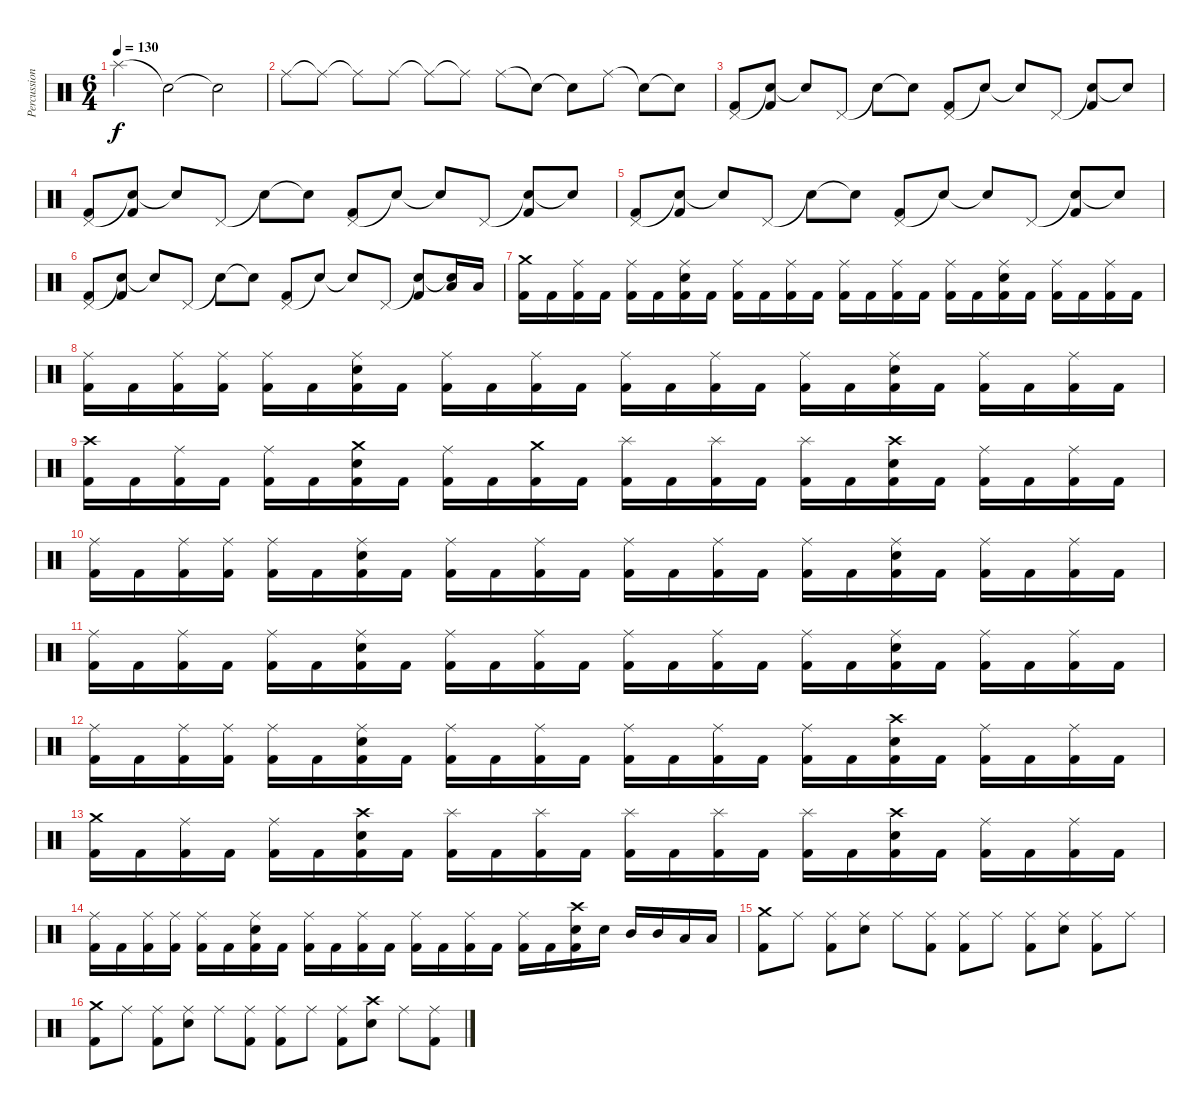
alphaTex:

\track ("Percussion" "Percussion") {instrument percussion}
\staff {score}
\articulation defaults
\ts (6 4)
\tempo 130
\clef neutral
\ks c "Splash (hit)".2{dy f} "Snare (hit)"{t}.2 "Snare (hit)"{t}.2
|
"Ride (middle)".8 "Ride (middle)"{t}.8 "Ride (middle)"{t}.8 "Ride (middle)".8 "Ride (middle)"{t}.8 "Ride (middle)"{t}.8 "Ride (middle)".8 "Snare (hit)"{t}.8 "Snare (hit)"{t}.8 "Ride (middle)".8 "Snare (hit)"{t}.8 "Snare (hit)"{t}.8 |
("Pedal Hi-Hat (hit)" "Kick (hit) 2").8 ("Snare (hit)"{t} "Kick (hit) 2").8 "Snare (hit)"{t}.8 "Pedal Hi-Hat (hit)".8 "Snare (hit)"{t}.8 "Snare (hit)"{t}.8 ("Pedal Hi-Hat (hit)" "Kick (hit) 2").8 "Snare (hit)"{t}.8 "Snare (hit)"{t}.8 "Pedal Hi-Hat (hit)".8 ("Snare (hit)"{t} "Kick (hit) 2").8 "Snare (hit)"{t}.8 |
("Pedal Hi-Hat (hit)" "Kick (hit) 2").8 ("Snare (hit)"{t} "Kick (hit) 2").8 "Snare (hit)"{t}.8 "Pedal Hi-Hat (hit)".8 "Snare (hit)"{t}.8 "Snare (hit)"{t}.8 ("Pedal Hi-Hat (hit)" "Kick (hit) 2").8 "Snare (hit)"{t}.8 "Snare (hit)"{t}.8 "Pedal Hi-Hat (hit)".8 ("Snare (hit)"{t} "Kick (hit) 2").8 "Snare (hit)"{t}.8 |
("Pedal Hi-Hat (hit)" "Kick (hit) 2").8 ("Snare (hit)"{t} "Kick (hit) 2").8 "Snare (hit)"{t}.8 "Pedal Hi-Hat (hit)".8 "Snare (hit)"{t}.8 "Snare (hit)"{t}.8 ("Pedal Hi-Hat (hit)" "Kick (hit) 2").8 "Snare (hit)"{t}.8 "Snare (hit)"{t}.8 "Pedal Hi-Hat (hit)".8 ("Snare (hit)"{t} "Kick (hit) 2").8 "Snare (hit)"{t}.8 |
("Pedal Hi-Hat (hit)" "Kick (hit) 2").8 ("Snare (hit)"{t} "Kick (hit) 2").8 "Snare (hit)"{t}.8 "Pedal Hi-Hat (hit)".8 "Snare (hit)"{t}.8 "Snare (hit)"{t}.8 ("Pedal Hi-Hat (hit)" "Kick (hit) 2").8 "Snare (hit)"{t}.8 "Snare (hit)"{t}.8 "Pedal Hi-Hat (hit)".8 ("Snare (hit)"{t} "Kick (hit) 2").8 ("Snare (hit)"{t} "Low Tom (hit)").16 "Low Tom (hit)".16 |
("Crash medium (hit)" "Kick (hit) 2").16 "Kick (hit) 2".16 ("Ride (middle)" "Kick (hit) 2").16 "Kick (hit) 2".16 ("Ride (middle)" "Kick (hit) 2").16 "Kick (hit) 2".16 ("Ride (middle)" "Snare (hit) 2" "Kick (hit) 2").16 "Kick (hit) 2".16 ("Ride (middle)" "Kick (hit) 2").16 "Kick (hit) 2".16 ("Ride (middle)" "Kick (hit) 2").16 "Kick (hit) 2".16 ("Ride (middle)" "Kick (hit) 2").16 "Kick (hit) 2".16 ("Ride (middle)" "Kick (hit) 2").16 "Kick (hit) 2".16 ("Ride (middle)" "Kick (hit) 2").16 "Kick (hit) 2".16 ("Ride (middle)" "Snare (hit) 2" "Kick (hit) 2").16 "Kick (hit) 2".16 ("Ride (middle)" "Kick (hit) 2").16 "Kick (hit) 2".16 ("Ride (middle)" "Kick (hit) 2").16 "Kick (hit) 2".16 |
("Ride (middle)" "Kick (hit) 2").16 "Kick (hit) 2".16 ("Ride (middle)" "Kick (hit) 2").16 ("Ride (middle)" "Kick (hit) 2").16 ("Ride (middle)" "Kick (hit) 2").16 "Kick (hit) 2".16 ("Ride (middle)" "Snare (hit) 2" "Kick (hit) 2").16 "Kick (hit) 2".16 ("Ride (middle)" "Kick (hit) 2").16 "Kick (hit) 2".16 ("Ride (middle)" "Kick (hit) 2").16 "Kick (hit) 2".16 ("Ride (middle)" "Kick (hit) 2").16 "Kick (hit) 2".16 ("Ride (middle)" "Kick (hit) 2").16 "Kick (hit) 2".16 ("Ride (middle)" "Kick (hit) 2").16 "Kick (hit) 2".16 ("Ride (middle)" "Snare (hit) 2" "Kick (hit) 2").16 "Kick (hit) 2".16 ("Ride (middle)" "Kick (hit) 2").16 "Kick (hit) 2".16 ("Ride (middle)" "Kick (hit) 2").16 "Kick (hit) 2".16 |
("Crash high (hit)" "Kick (hit) 2").16 "Kick (hit) 2".16 ("Ride (middle)" "Kick (hit) 2").16 "Kick (hit) 2".16 ("Ride (middle)" "Kick (hit) 2").16 "Kick (hit) 2".16 ("Crash medium (hit)" "Snare (hit) 2" "Kick (hit) 2").16 "Kick (hit) 2".16 ("Ride (middle)" "Kick (hit) 2").16 "Kick (hit) 2".16 ("Crash medium (hit)" "Kick (hit) 2").16 "Kick (hit) 2".16 ("Splash (hit)" "Kick (hit) 2").16 "Kick (hit) 2".16 ("Splash (hit)" "Kick (hit) 2").16 "Kick (hit) 2".16 ("Splash (hit)" "Kick (hit) 2").16 "Kick (hit) 2".16 ("Crash high (hit)" "Snare (hit) 2" "Kick (hit) 2").16 "Kick (hit) 2".16 ("Ride (middle)" "Kick (hit) 2").16 "Kick (hit) 2".16 ("Ride (middle)" "Kick (hit) 2").16 "Kick (hit) 2".16 |
("Ride (middle)" "Kick (hit) 2").16 "Kick (hit) 2".16 ("Ride (middle)" "Kick (hit) 2").16 ("Ride (middle)" "Kick (hit) 2").16 ("Ride (middle)" "Kick (hit) 2").16 "Kick (hit) 2".16 ("Ride (middle)" "Snare (hit) 2" "Kick (hit) 2").16 "Kick (hit) 2".16 ("Ride (middle)" "Kick (hit) 2").16 "Kick (hit) 2".16 ("Ride (middle)" "Kick (hit) 2").16 "Kick (hit) 2".16 ("Ride (middle)" "Kick (hit) 2").16 "Kick (hit) 2".16 ("Ride (middle)" "Kick (hit) 2").16 "Kick (hit) 2".16 ("Ride (middle)" "Kick (hit) 2").16 "Kick (hit) 2".16 ("Ride (middle)" "Snare (hit) 2" "Kick (hit) 2").16 "Kick (hit) 2".16 ("Ride (middle)" "Kick (hit) 2").16 "Kick (hit) 2".16 ("Ride (middle)" "Kick (hit) 2").16 "Kick (hit) 2".16 |
("Ride (middle)" "Kick (hit) 2").16 "Kick (hit) 2".16 ("Ride (middle)" "Kick (hit) 2").16 "Kick (hit) 2".16 ("Ride (middle)" "Kick (hit) 2").16 "Kick (hit) 2".16 ("Ride (middle)" "Snare (hit) 2" "Kick (hit) 2").16 "Kick (hit) 2".16 ("Ride (middle)" "Kick (hit) 2").16 "Kick (hit) 2".16 ("Ride (middle)" "Kick (hit) 2").16 "Kick (hit) 2".16 ("Ride (middle)" "Kick (hit) 2").16 "Kick (hit) 2".16 ("Ride (middle)" "Kick (hit) 2").16 "Kick (hit) 2".16 ("Ride (middle)" "Kick (hit) 2").16 "Kick (hit) 2".16 ("Ride (middle)" "Snare (hit) 2" "Kick (hit) 2").16 "Kick (hit) 2".16 ("Ride (middle)" "Kick (hit) 2").16 "Kick (hit) 2".16 ("Ride (middle)" "Kick (hit) 2").16 "Kick (hit) 2".16 |
("Ride (middle)" "Kick (hit) 2").16 "Kick (hit) 2".16 ("Ride (middle)" "Kick (hit) 2").16 ("Ride (middle)" "Kick (hit) 2").16 ("Ride (middle)" "Kick (hit) 2").16 "Kick (hit) 2".16 ("Ride (middle)" "Snare (hit) 2" "Kick (hit) 2").16 "Kick (hit) 2".16 ("Ride (middle)" "Kick (hit) 2").16 "Kick (hit) 2".16 ("Ride (middle)" "Kick (hit) 2").16 "Kick (hit) 2".16 ("Ride (middle)" "Kick (hit) 2").16 "Kick (hit) 2".16 ("Ride (middle)" "Kick (hit) 2").16 "Kick (hit) 2".16 ("Ride (middle)" "Kick (hit) 2").16 "Kick (hit) 2".16 ("Crash high (hit)" "Snare (hit) 2" "Kick (hit) 2").16 "Kick (hit) 2".16 ("Ride (middle)" "Kick (hit) 2").16 "Kick (hit) 2".16 ("Ride (middle)" "Kick (hit) 2").16 "Kick (hit) 2".16 |
("Crash medium (hit)" "Kick (hit) 2").16 "Kick (hit) 2".16 ("Ride (middle)" "Kick (hit) 2").16 "Kick (hit) 2".16 ("Ride (middle)" "Kick (hit) 2").16 "Kick (hit) 2".16 ("Crash high (hit)" "Snare (hit) 2" "Kick (hit) 2").16 "Kick (hit) 2".16 ("Splash (hit)" "Kick (hit) 2").16 "Kick (hit) 2".16 ("Splash (hit)" "Kick (hit) 2").16 "Kick (hit) 2".16 ("Splash (hit)" "Kick (hit) 2").16 "Kick (hit) 2".16 ("Splash (hit)" "Kick (hit) 2").16 "Kick (hit) 2".16 ("Splash (hit)" "Kick (hit) 2").16 "Kick (hit) 2".16 ("Crash high (hit)" "Snare (hit) 2" "Kick (hit) 2").16 "Kick (hit) 2".16 ("Ride (middle)" "Kick (hit) 2").16 "Kick (hit) 2".16 ("Ride (middle)" "Kick (hit) 2").16 "Kick (hit) 2".16 |
("Ride (middle)" "Kick (hit) 2").16 "Kick (hit) 2".16 ("Ride (middle)" "Kick (hit) 2").16 ("Ride (middle)" "Kick (hit) 2").16 ("Ride (middle)" "Kick (hit) 2").16 "Kick (hit) 2".16 ("Ride (middle)" "Snare (hit) 2" "Kick (hit) 2").16 "Kick (hit) 2".16 ("Ride (middle)" "Kick (hit) 2").16 "Kick (hit) 2".16 ("Ride (middle)" "Kick (hit) 2").16 "Kick (hit) 2".16 ("Ride (middle)" "Kick (hit) 2").16 "Kick (hit) 2".16 ("Ride (middle)" "Kick (hit) 2").16 "Kick (hit) 2".16 ("Ride (middle)" "Kick (hit) 2").16 "Kick (hit) 2".16 ("Crash high (hit)" "Snare (hit) 2" "Kick (hit) 2").16 "Snare (hit) 2".16 "Mid Tom (hit)".16 "Mid Tom (hit)".16 "Low Tom (hit)".16 "Low Tom (hit)".16 |
("Crash medium (hit)" "Kick (hit) 2").8 "Ride (middle)".8 ("Ride (middle)" "Kick (hit) 2").8 ("Ride (middle)" "Snare (hit) 2").8 "Ride (middle)".8 ("Ride (middle)" "Kick (hit) 2").8 ("Ride (middle)" "Kick (hit) 2").8 "Ride (middle)".8 ("Ride (middle)" "Kick (hit) 2").8 ("Ride (middle)" "Snare (hit) 2").8 ("Ride (middle)" "Kick (hit) 2").8 "Ride (middle)".8 |
("Crash medium (hit)" "Kick (hit) 2").8 "Ride (middle)".8 ("Ride (middle)" "Kick (hit) 2").8 ("Ride (middle)" "Snare (hit) 2").8 "Ride (middle)".8 ("Ride (middle)" "Kick (hit) 2").8 ("Ride (middle)" "Kick (hit) 2").8 "Ride (middle)".8 ("Ride (middle)" "Kick (hit) 2").8 ("Crash high (hit)" "Snare (hit) 2").8 "Ride (middle)".8 ("Ride (middle)" "Kick (hit) 2").8
